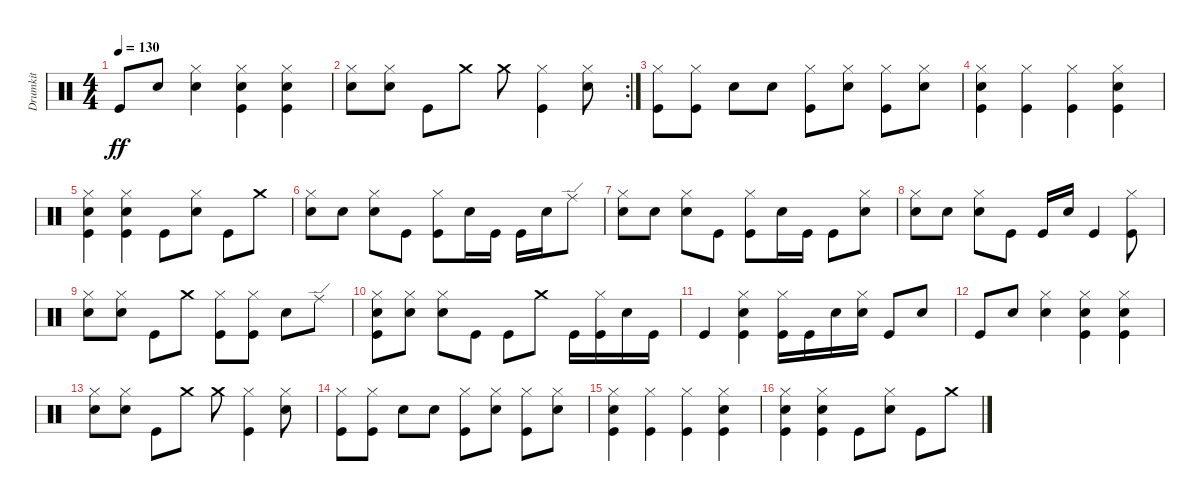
\track ("Drumkit" "Drumkit") {instrument percussion}
\staff {score}
\articulation defaults
\ts (4 4)
\tempo 130
\clef neutral
\ks c "Kick (hit)".8{dy ff} "Snare (hit) 2".8
("Snare (hit) 2" "Hi-Hat (closed)").4 ("Snare (hit) 2" "Hi-Hat (closed)" "Kick (hit)").4 ("Hi-Hat (closed)" "Snare (hit) 2" "Kick (hit)").4 |
\rc 2
("Hi-Hat (closed)" "Snare (hit) 2").8 ("Hi-Hat (closed)" "Snare (hit) 2").8 "Kick (hit)".8 "Crash medium (hit)".8 "Crash medium (hit)".8 ("Hi-Hat (closed)" "Kick (hit)").4 ("Hi-Hat (closed)" "Snare (hit) 2").8 |
("Kick (hit)" "Hi-Hat (closed)").8 ("Kick (hit)" "Hi-Hat (closed)").8 "Snare (hit) 2".8 "Snare (hit) 2".8 ("Kick (hit)" "Hi-Hat (closed)").8 ("Snare (hit) 2" "Hi-Hat (closed)").8 ("Kick (hit)" "Hi-Hat (closed)").8 ("Snare (hit) 2" "Hi-Hat (closed)").8 |
("Hi-Hat (closed)" "Snare (hit) 2" "Kick (hit)").4 ("Kick (hit)" "Hi-Hat (closed)").4 ("Kick (hit)" "Hi-Hat (closed)").4 ("Kick (hit)" "Snare (hit) 2" "Hi-Hat (closed)").4 |
("Kick (hit)" "Snare (hit) 2" "Hi-Hat (closed)").4 ("Kick (hit)" "Snare (hit) 2" "Hi-Hat (closed)").4 "Kick (hit)".8 ("Snare (hit) 2" "Hi-Hat (closed)").8 "Kick (hit)".8 "Crash medium (hit)".8 |
("Snare (hit) 2" "Hi-Hat (closed)").8 "Snare (hit) 2".8 ("Hi-Hat (closed)" "Snare (hit) 2").8 "Kick (hit)".8 ("Kick (hit)" "Hi-Hat (closed)").8 "Snare (hit) 2".16 "Kick (hit)".16 "Kick (hit)".16 "Snare (hit) 2".16 "Ride (edge)".8 |
("Snare (hit) 2" "Hi-Hat (closed)").8 "Snare (hit) 2".8 ("Hi-Hat (closed)" "Snare (hit) 2").8 "Kick (hit)".8 ("Kick (hit)" "Hi-Hat (closed)").8 "Snare (hit) 2".16 "Kick (hit)".16 "Kick (hit)".8 ("Snare (hit) 2" "Hi-Hat (closed)").8 |
("Snare (hit) 2" "Hi-Hat (closed)").8 "Snare (hit) 2".8 ("Hi-Hat (closed)" "Snare (hit) 2").8 "Kick (hit)".8 "Kick (hit)".16 "Snare (hit) 2".16 "Kick (hit)".4 ("Kick (hit)" "Hi-Hat (closed)").8 |
("Hi-Hat (closed)" "Snare (hit) 2").8 ("Hi-Hat (closed)" "Snare (hit) 2").8 "Kick (hit)".8 "Crash medium (hit)".8 ("Kick (hit)" "Hi-Hat (closed)").8 ("Kick (hit)" "Hi-Hat (closed)").8 "Snare (hit) 2".8 "Ride (edge)".8 |
("Snare (hit) 2" "Kick (hit)" "Hi-Hat (closed)").8 ("Snare (hit) 2" "Hi-Hat (closed)").8 ("Snare (hit) 2" "Hi-Hat (closed)").8 "Kick (hit)".8 "Kick (hit)".8 "Crash medium (hit)".8 "Kick (hit)".16 ("Kick (hit)" "Hi-Hat (closed)").16 "Snare (hit) 2".16 "Kick (hit)".16 |
"Kick (hit)".4 ("Kick (hit)" "Hi-Hat (closed)" "Snare (hit) 2").4 ("Kick (hit)" "Hi-Hat (closed)").16 "Kick (hit)".16 "Snare (hit) 2".16 ("Snare (hit) 2" "Hi-Hat (closed)").16 "Kick (hit)".8 "Snare (hit) 2".8 |
"Kick (hit)".8 "Snare (hit) 2".8 ("Snare (hit) 2" "Hi-Hat (closed)").4 ("Snare (hit) 2" "Hi-Hat (closed)" "Kick (hit)").4 ("Hi-Hat (closed)" "Snare (hit) 2" "Kick (hit)").4 |
("Hi-Hat (closed)" "Snare (hit) 2").8 ("Hi-Hat (closed)" "Snare (hit) 2").8 "Kick (hit)".8 "Crash medium (hit)".8 "Crash medium (hit)".8 ("Hi-Hat (closed)" "Kick (hit)").4 ("Hi-Hat (closed)" "Snare (hit) 2").8 |
("Kick (hit)" "Hi-Hat (closed)").8 ("Kick (hit)" "Hi-Hat (closed)").8 "Snare (hit) 2".8 "Snare (hit) 2".8 ("Kick (hit)" "Hi-Hat (closed)").8 ("Snare (hit) 2" "Hi-Hat (closed)").8 ("Kick (hit)" "Hi-Hat (closed)").8 ("Snare (hit) 2" "Hi-Hat (closed)").8 |
("Hi-Hat (closed)" "Snare (hit) 2" "Kick (hit)").4 ("Kick (hit)" "Hi-Hat (closed)").4 ("Kick (hit)" "Hi-Hat (closed)").4 ("Kick (hit)" "Snare (hit) 2" "Hi-Hat (closed)").4 |
("Kick (hit)" "Snare (hit) 2" "Hi-Hat (closed)").4 ("Kick (hit)" "Snare (hit) 2" "Hi-Hat (closed)").4 "Kick (hit)".8 ("Snare (hit) 2" "Hi-Hat (closed)").8 "Kick (hit)".8 "Crash medium (hit)".8
